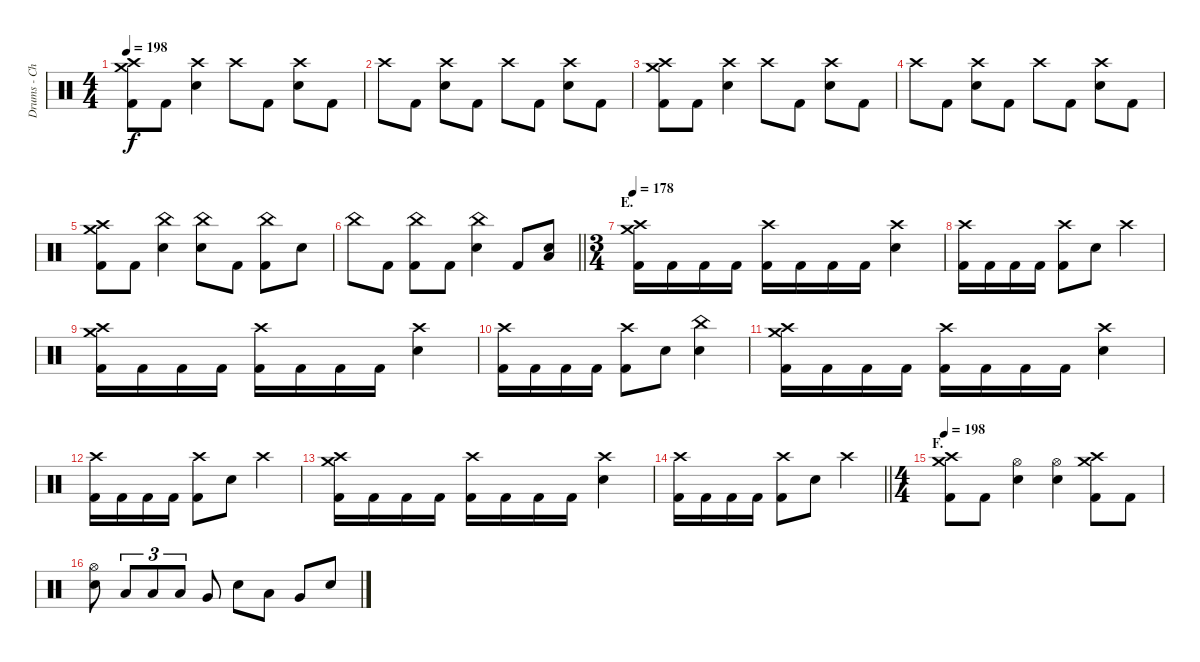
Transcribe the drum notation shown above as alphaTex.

\track ("Drums - Christopher Hornbrook" "Drums - Ch") {instrument percussion}
\staff {score}
\articulation defaults
\ts (4 4)
\tempo 198
\clef neutral
\ks c
("Crash medium (hit)" "Crash high (hit)" "Kick (hit) 2").8{dy f} "Kick (hit) 2".8 ("Crash high (hit)" "Electric Snare (hit)").4 "Crash high (hit)".8 "Kick (hit) 2".8 ("Crash high (hit)" "Electric Snare (hit)").8 "Kick (hit) 2".8 |
"Crash high (hit)".8 "Kick (hit) 2".8 ("Crash high (hit)" "Electric Snare (hit)").8 "Kick (hit) 2".8 "Crash high (hit)".8 "Kick (hit) 2".8 ("Crash high (hit)" "Electric Snare (hit)").8 "Kick (hit) 2".8 |
("Crash medium (hit)" "Crash high (hit)" "Kick (hit) 2").8 "Kick (hit) 2".8 ("Crash high (hit)" "Electric Snare (hit)").4 "Crash high (hit)".8 "Kick (hit) 2".8 ("Crash high (hit)" "Electric Snare (hit)").8 "Kick (hit) 2".8 |
"Crash high (hit)".8 "Kick (hit) 2".8 ("Crash high (hit)" "Electric Snare (hit)").8 "Kick (hit) 2".8 "Crash high (hit)".8 "Kick (hit) 2".8 ("Crash high (hit)" "Electric Snare (hit)").8 "Kick (hit) 2".8 |
("Crash medium (hit)" "Crash high (hit)" "Kick (hit) 2").8 "Kick (hit) 2".8 ("China (hit)" "Electric Snare (hit)").4 ("China (hit)" "Electric Snare (hit)").8 "Kick (hit) 2".8 ("China (hit)" "Kick (hit) 2").8 "Electric Snare (hit)".8 |
\barLineRight lightlight "China (hit)".8 "Kick (hit) 2".8
("China (hit)" "Kick (hit) 2").8 "Kick (hit) 2".8 ("China (hit)" "Electric Snare (hit)").4 "Kick (hit) 2".8 ("Low Tom (hit)" "Electric Snare (hit)").8{bu 120} |
\ts (3 4)
\section ("" "E.")
\tempo 178
("Crash medium (hit)" "Crash high (hit)" "Kick (hit) 2").16 "Kick (hit) 2".16 "Kick (hit) 2".16 "Kick (hit) 2".16 ("Crash high (hit)" "Kick (hit) 2").16 "Kick (hit) 2".16 "Kick (hit) 2".16 "Kick (hit) 2".16 ("Crash high (hit)" "Electric Snare (hit)").4 |
("Crash high (hit)" "Kick (hit) 2").16 "Kick (hit) 2".16 "Kick (hit) 2".16 "Kick (hit) 2".16 ("Crash high (hit)" "Kick (hit) 2").8 "Electric Snare (hit)".8 "Crash high (hit)".4 |
("Crash medium (hit)" "Crash high (hit)" "Kick (hit) 2").16 "Kick (hit) 2".16 "Kick (hit) 2".16 "Kick (hit) 2".16 ("Crash high (hit)" "Kick (hit) 2").16 "Kick (hit) 2".16 "Kick (hit) 2".16 "Kick (hit) 2".16 ("Crash high (hit)" "Electric Snare (hit)").4 |
("Crash high (hit)" "Kick (hit) 2").16 "Kick (hit) 2".16 "Kick (hit) 2".16 "Kick (hit) 2".16 ("Crash high (hit)" "Kick (hit) 2").8 "Electric Snare (hit)".8 ("China (hit)" "Electric Snare (hit)").4 |
("Crash medium (hit)" "Crash high (hit)" "Kick (hit) 2").16 "Kick (hit) 2".16 "Kick (hit) 2".16 "Kick (hit) 2".16 ("Crash high (hit)" "Kick (hit) 2").16 "Kick (hit) 2".16 "Kick (hit) 2".16 "Kick (hit) 2".16 ("Crash high (hit)" "Electric Snare (hit)").4 |
("Crash high (hit)" "Kick (hit) 2").16 "Kick (hit) 2".16 "Kick (hit) 2".16 "Kick (hit) 2".16 ("Crash high (hit)" "Kick (hit) 2").8 "Electric Snare (hit)".8 "Crash high (hit)".4 |
("Crash medium (hit)" "Crash high (hit)" "Kick (hit) 2").16 "Kick (hit) 2".16 "Kick (hit) 2".16 "Kick (hit) 2".16 ("Crash high (hit)" "Kick (hit) 2").16 "Kick (hit) 2".16 "Kick (hit) 2".16 "Kick (hit) 2".16 ("Crash high (hit)" "Electric Snare (hit)").4 |
\barLineRight lightlight
("Crash high (hit)" "Kick (hit) 2").16 "Kick (hit) 2".16 "Kick (hit) 2".16 "Kick (hit) 2".16 ("Crash high (hit)" "Kick (hit) 2").8 "Electric Snare (hit)".8 "Crash high (hit)".4 |
\ts (4 4)
\section ("" "F.")
\tempo 198
("Crash medium (hit)" "Crash high (hit)" "Kick (hit) 2").8 "Kick (hit) 2".8 ("Hi-Hat (open)" "Electric Snare (hit)").4 ("Hi-Hat (open)" "Electric Snare (hit)").4 ("Crash medium (hit)" "Crash high (hit)" "Kick (hit) 2").8 "Kick (hit) 2".8 |
("Hi-Hat (open)" "Electric Snare (hit)").8 "Low Tom (hit)".8{tu (3 2)} "Low Tom (hit)".8{tu (3 2)} "Low Tom (hit)".8{tu (3 2)} "Very Low Tom (hit)".8 "Electric Snare (hit)".8 "Low Tom (hit)".8 "Very Low Tom (hit)".8 "Electric Snare (hit)".8
